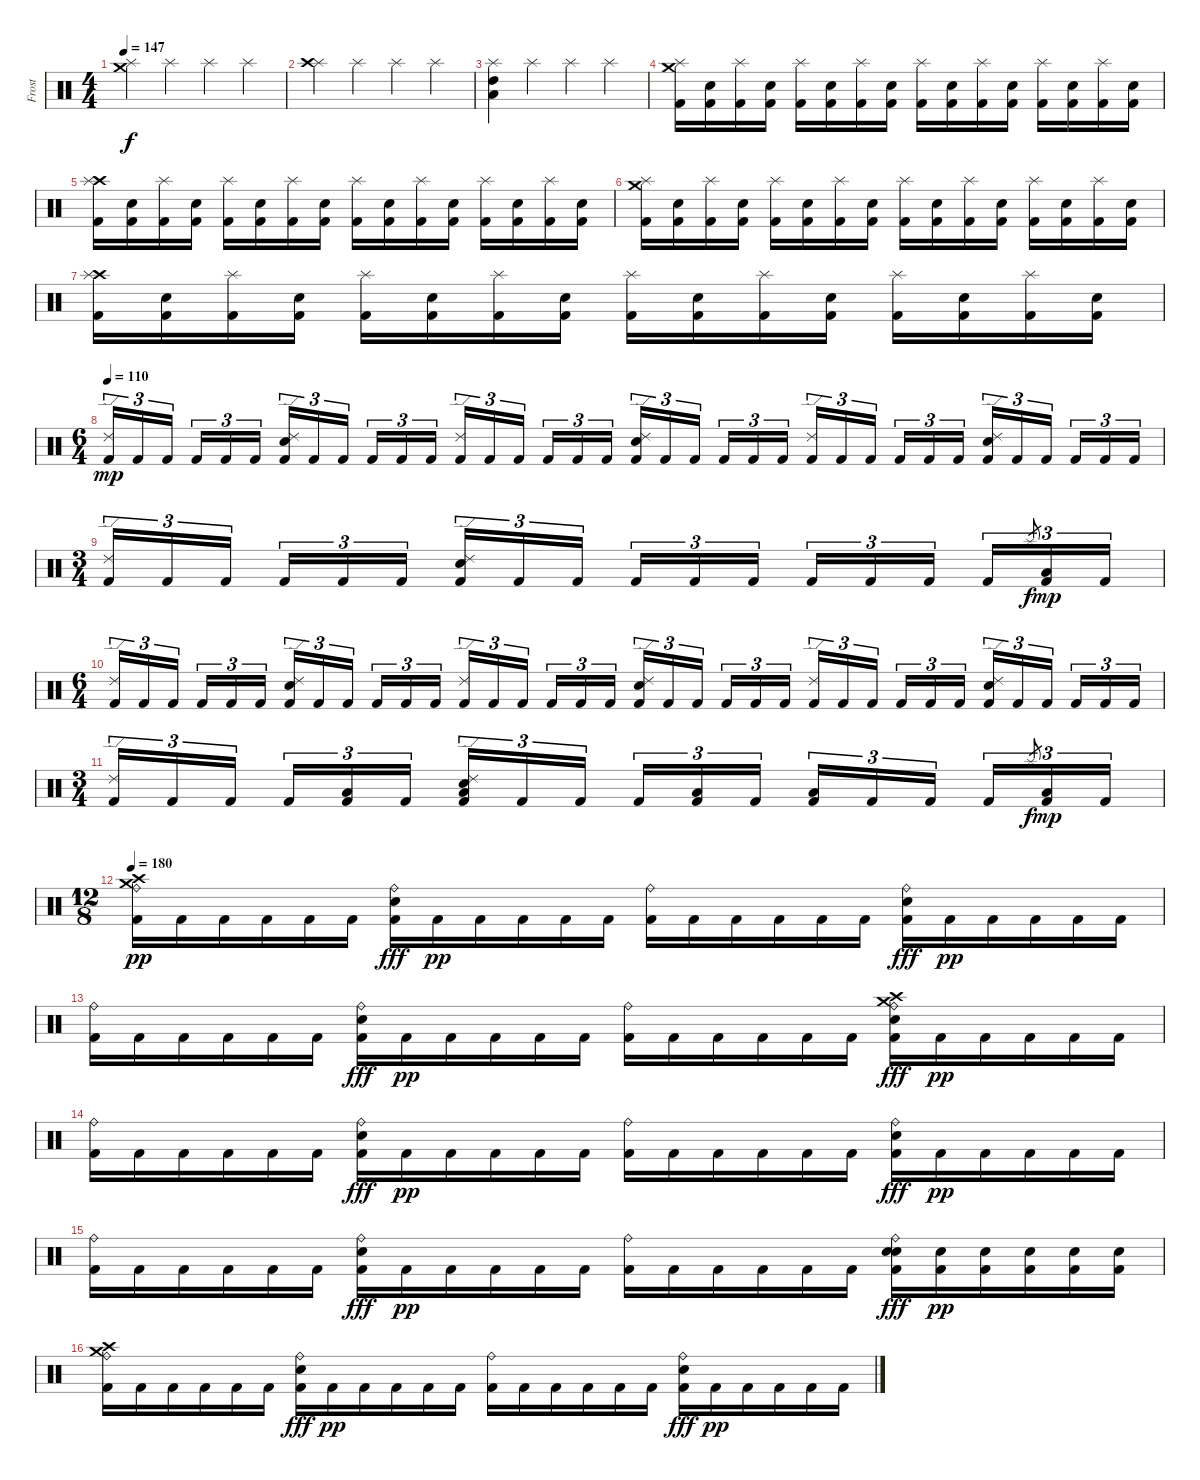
\track ("Frost" "Frost") {instrument percussion}
\staff {score}
\articulation defaults
\ts (4 4)
\tempo 147
\clef neutral
\ks c
("Splash (hit)" "Crash medium (hit)").4{dy f} "Splash (hit)".4 "Splash (hit)".4 "Splash (hit)".4 |
("Splash (hit)" "Crash high (hit)").4 "Splash (hit)".4 "Splash (hit)".4 "Splash (hit)".4 |
("Splash (hit)" "High Tom (hit)" "Low Floor Tom (hit)").4 "Splash (hit)".4 "Splash (hit)".4 "Splash (hit)".4 |
("Kick (hit) 2" "Crash medium (hit)" "Splash (hit)").16 ("Kick (hit) 2" "Electric Snare (hit)").16 ("Kick (hit) 2" "Splash (hit)").16 ("Kick (hit) 2" "Electric Snare (hit)").16 ("Kick (hit) 2" "Splash (hit)").16 ("Kick (hit) 2" "Electric Snare (hit)").16 ("Kick (hit) 2" "Splash (hit)").16 ("Kick (hit) 2" "Electric Snare (hit)").16 ("Kick (hit) 2" "Splash (hit)").16 ("Kick (hit) 2" "Electric Snare (hit)").16 ("Kick (hit) 2" "Splash (hit)").16 ("Kick (hit) 2" "Electric Snare (hit)").16 ("Kick (hit) 2" "Splash (hit)").16 ("Kick (hit) 2" "Electric Snare (hit)").16 ("Kick (hit) 2" "Splash (hit)").16 ("Kick (hit) 2" "Electric Snare (hit)").16 |
("Kick (hit) 2" "Crash high (hit)" "Splash (hit)").16 ("Kick (hit) 2" "Electric Snare (hit)").16 ("Kick (hit) 2" "Splash (hit)").16 ("Kick (hit) 2" "Electric Snare (hit)").16 ("Kick (hit) 2" "Splash (hit)").16 ("Kick (hit) 2" "Electric Snare (hit)").16 ("Kick (hit) 2" "Splash (hit)").16 ("Kick (hit) 2" "Electric Snare (hit)").16 ("Kick (hit) 2" "Splash (hit)").16 ("Kick (hit) 2" "Electric Snare (hit)").16 ("Kick (hit) 2" "Splash (hit)").16 ("Kick (hit) 2" "Electric Snare (hit)").16 ("Kick (hit) 2" "Splash (hit)").16 ("Kick (hit) 2" "Electric Snare (hit)").16 ("Kick (hit) 2" "Splash (hit)").16 ("Kick (hit) 2" "Electric Snare (hit)").16 |
("Kick (hit) 2" "Crash medium (hit)" "Splash (hit)").16 ("Kick (hit) 2" "Electric Snare (hit)").16 ("Kick (hit) 2" "Splash (hit)").16 ("Kick (hit) 2" "Electric Snare (hit)").16 ("Kick (hit) 2" "Splash (hit)").16 ("Kick (hit) 2" "Electric Snare (hit)").16 ("Kick (hit) 2" "Splash (hit)").16 ("Kick (hit) 2" "Electric Snare (hit)").16 ("Kick (hit) 2" "Splash (hit)").16 ("Kick (hit) 2" "Electric Snare (hit)").16 ("Kick (hit) 2" "Splash (hit)").16 ("Kick (hit) 2" "Electric Snare (hit)").16 ("Kick (hit) 2" "Splash (hit)").16 ("Kick (hit) 2" "Electric Snare (hit)").16 ("Kick (hit) 2" "Splash (hit)").16 ("Kick (hit) 2" "Electric Snare (hit)").16 |
("Kick (hit) 2" "Crash high (hit)" "Splash (hit)").16 ("Kick (hit) 2" "Electric Snare (hit)").16 ("Kick (hit) 2" "Splash (hit)").16 ("Kick (hit) 2" "Electric Snare (hit)").16 ("Kick (hit) 2" "Splash (hit)").16 ("Kick (hit) 2" "Electric Snare (hit)").16 ("Kick (hit) 2" "Splash (hit)").16 ("Kick (hit) 2" "Electric Snare (hit)").16 ("Kick (hit) 2" "Splash (hit)").16 ("Kick (hit) 2" "Electric Snare (hit)").16 ("Kick (hit) 2" "Splash (hit)").16 ("Kick (hit) 2" "Electric Snare (hit)").16 ("Kick (hit) 2" "Splash (hit)").16 ("Kick (hit) 2" "Electric Snare (hit)").16 ("Kick (hit) 2" "Splash (hit)").16 ("Kick (hit) 2" "Electric Snare (hit)").16 |
\ts (6 4)
\tempo 110
("Kick (hit) 2" "Ride (edge) 2").16{tu (3 2) dy mp} "Kick (hit) 2".16{tu (3 2)} "Kick (hit) 2".16{tu (3 2)} "Kick (hit) 2".16{tu (3 2)} "Kick (hit) 2".16{tu (3 2)} "Kick (hit) 2".16{tu (3 2)} ("Kick (hit) 2" "Ride (edge) 2" "Snare (hit) 2").16{tu (3 2)} "Kick (hit) 2".16{tu (3 2)} "Kick (hit) 2".16{tu (3 2)} "Kick (hit) 2".16{tu (3 2)} "Kick (hit) 2".16{tu (3 2)} "Kick (hit) 2".16{tu (3 2)} ("Kick (hit) 2" "Ride (edge) 2").16{tu (3 2)} "Kick (hit) 2".16{tu (3 2)} "Kick (hit) 2".16{tu (3 2)} "Kick (hit) 2".16{tu (3 2)} "Kick (hit) 2".16{tu (3 2)} "Kick (hit) 2".16{tu (3 2)} ("Kick (hit) 2" "Ride (edge) 2" "Snare (hit) 2").16{tu (3 2)} "Kick (hit) 2".16{tu (3 2)} "Kick (hit) 2".16{tu (3 2)} "Kick (hit) 2".16{tu (3 2)} "Kick (hit) 2".16{tu (3 2)} "Kick (hit) 2".16{tu (3 2)} ("Kick (hit) 2" "Ride (edge) 2").16{tu (3 2)} "Kick (hit) 2".16{tu (3 2)} "Kick (hit) 2".16{tu (3 2)} "Kick (hit) 2".16{tu (3 2)} "Kick (hit) 2".16{tu (3 2)} "Kick (hit) 2".16{tu (3 2)} ("Kick (hit) 2" "Ride (edge) 2" "Snare (hit) 2").16{tu (3 2)} "Kick (hit) 2".16{tu (3 2)} "Kick (hit) 2".16{tu (3 2)} "Kick (hit) 2".16{tu (3 2)} "Kick (hit) 2".16{tu (3 2)} "Kick (hit) 2".16{tu (3 2)} |
\ts (3 4)
("Kick (hit) 2" "Ride (edge) 2").16{tu (3 2)} "Kick (hit) 2".16{tu (3 2)} "Kick (hit) 2".16{tu (3 2)} "Kick (hit) 2".16{tu (3 2)} "Kick (hit) 2".16{tu (3 2)} "Kick (hit) 2".16{tu (3 2)} ("Kick (hit) 2" "Ride (edge) 2" "Snare (hit) 2").16{tu (3 2)} "Kick (hit) 2".16{tu (3 2)} "Kick (hit) 2".16{tu (3 2)} "Kick (hit) 2".16{tu (3 2)} "Kick (hit) 2".16{tu (3 2)} "Kick (hit) 2".16{tu (3 2)} "Kick (hit) 2".16{tu (3 2)} "Kick (hit) 2".16{tu (3 2)} "Kick (hit) 2".16{tu (3 2)} "Kick (hit) 2".16{tu (3 2)} "Splash (hit)".8{gr dy f} ("Kick (hit) 2" "Low Tom (hit)").16{tu (3 2) dy mp} "Kick (hit) 2".16{tu (3 2)} |
\ts (6 4)
("Kick (hit) 2" "Ride (edge) 2").16{tu (3 2)} "Kick (hit) 2".16{tu (3 2)} "Kick (hit) 2".16{tu (3 2)} "Kick (hit) 2".16{tu (3 2)} "Kick (hit) 2".16{tu (3 2)} "Kick (hit) 2".16{tu (3 2)} ("Kick (hit) 2" "Ride (edge) 2" "Snare (hit) 2").16{tu (3 2)} "Kick (hit) 2".16{tu (3 2)} "Kick (hit) 2".16{tu (3 2)} "Kick (hit) 2".16{tu (3 2)} "Kick (hit) 2".16{tu (3 2)} "Kick (hit) 2".16{tu (3 2)} ("Kick (hit) 2" "Ride (edge) 2").16{tu (3 2)} "Kick (hit) 2".16{tu (3 2)} "Kick (hit) 2".16{tu (3 2)} "Kick (hit) 2".16{tu (3 2)} "Kick (hit) 2".16{tu (3 2)} "Kick (hit) 2".16{tu (3 2)} ("Kick (hit) 2" "Ride (edge) 2" "Snare (hit) 2").16{tu (3 2)} "Kick (hit) 2".16{tu (3 2)} "Kick (hit) 2".16{tu (3 2)} "Kick (hit) 2".16{tu (3 2)} "Kick (hit) 2".16{tu (3 2)} "Kick (hit) 2".16{tu (3 2)} ("Kick (hit) 2" "Ride (edge) 2").16{tu (3 2)} "Kick (hit) 2".16{tu (3 2)} "Kick (hit) 2".16{tu (3 2)} "Kick (hit) 2".16{tu (3 2)} "Kick (hit) 2".16{tu (3 2)} "Kick (hit) 2".16{tu (3 2)} ("Kick (hit) 2" "Ride (edge) 2" "Snare (hit) 2").16{tu (3 2)} "Kick (hit) 2".16{tu (3 2)} "Kick (hit) 2".16{tu (3 2)} "Kick (hit) 2".16{tu (3 2)} "Kick (hit) 2".16{tu (3 2)} "Kick (hit) 2".16{tu (3 2)} |
\ts (3 4)
("Kick (hit) 2" "Ride (edge) 2").16{tu (3 2)} "Kick (hit) 2".16{tu (3 2)} "Kick (hit) 2".16{tu (3 2)} "Kick (hit) 2".16{tu (3 2)} ("Kick (hit) 2" "Low Tom (hit)").16{tu (3 2)} "Kick (hit) 2".16{tu (3 2)} ("Kick (hit) 2" "Low Tom (hit)" "Ride (edge) 2" "Snare (hit) 2").16{tu (3 2)} "Kick (hit) 2".16{tu (3 2)} "Kick (hit) 2".16{tu (3 2)} "Kick (hit) 2".16{tu (3 2)} ("Kick (hit) 2" "Low Tom (hit)").16{tu (3 2)} "Kick (hit) 2".16{tu (3 2)} ("Kick (hit) 2" "Low Tom (hit)").16{tu (3 2)} "Kick (hit) 2".16{tu (3 2)} "Kick (hit) 2".16{tu (3 2)} "Kick (hit) 2".16{tu (3 2)} "Splash (hit)".8{gr dy f} ("Kick (hit) 2" "Low Tom (hit)").16{tu (3 2) dy mp} "Kick (hit) 2".16{tu (3 2)} |
\ts (12 8)
\tempo 180
("Kick (hit) 2" "Crash high (hit)" "Crash medium (hit)" "Ride (bell)").16{dy pp} "Kick (hit) 2".16 "Kick (hit) 2".16 "Kick (hit) 2".16 "Kick (hit) 2".16 "Kick (hit) 2".16 ("Kick (hit) 2" "Ride (bell)" "Electric Snare (hit)").16{dy fff} "Kick (hit) 2".16{dy pp} "Kick (hit) 2".16 "Kick (hit) 2".16 "Kick (hit) 2".16 "Kick (hit) 2".16 ("Kick (hit) 2" "Ride (bell)").16 "Kick (hit) 2".16 "Kick (hit) 2".16 "Kick (hit) 2".16 "Kick (hit) 2".16 "Kick (hit) 2".16 ("Kick (hit) 2" "Ride (bell)" "Electric Snare (hit)").16{dy fff} "Kick (hit) 2".16{dy pp} "Kick (hit) 2".16 "Kick (hit) 2".16 "Kick (hit) 2".16 "Kick (hit) 2".16 |
("Kick (hit) 2" "Ride (bell)").16 "Kick (hit) 2".16 "Kick (hit) 2".16 "Kick (hit) 2".16 "Kick (hit) 2".16 "Kick (hit) 2".16 ("Kick (hit) 2" "Ride (bell)" "Electric Snare (hit)").16{dy fff} "Kick (hit) 2".16{dy pp} "Kick (hit) 2".16 "Kick (hit) 2".16 "Kick (hit) 2".16 "Kick (hit) 2".16 ("Kick (hit) 2" "Ride (bell)").16 "Kick (hit) 2".16 "Kick (hit) 2".16 "Kick (hit) 2".16 "Kick (hit) 2".16 "Kick (hit) 2".16 ("Kick (hit) 2" "Crash high (hit)" "Crash medium (hit)" "Ride (bell)" "Electric Snare (hit)").16{dy fff} "Kick (hit) 2".16{dy pp} "Kick (hit) 2".16 "Kick (hit) 2".16 "Kick (hit) 2".16 "Kick (hit) 2".16 |
("Kick (hit) 2" "Ride (bell)").16 "Kick (hit) 2".16 "Kick (hit) 2".16 "Kick (hit) 2".16 "Kick (hit) 2".16 "Kick (hit) 2".16 ("Kick (hit) 2" "Ride (bell)" "Electric Snare (hit)").16{dy fff} "Kick (hit) 2".16{dy pp} "Kick (hit) 2".16 "Kick (hit) 2".16 "Kick (hit) 2".16 "Kick (hit) 2".16 ("Kick (hit) 2" "Ride (bell)").16 "Kick (hit) 2".16 "Kick (hit) 2".16 "Kick (hit) 2".16 "Kick (hit) 2".16 "Kick (hit) 2".16 ("Kick (hit) 2" "Ride (bell)" "Electric Snare (hit)").16{dy fff} "Kick (hit) 2".16{dy pp} "Kick (hit) 2".16 "Kick (hit) 2".16 "Kick (hit) 2".16 "Kick (hit) 2".16 |
("Kick (hit) 2" "Ride (bell)").16 "Kick (hit) 2".16 "Kick (hit) 2".16 "Kick (hit) 2".16 "Kick (hit) 2".16 "Kick (hit) 2".16 ("Kick (hit) 2" "Ride (bell)" "Electric Snare (hit)").16{dy fff} "Kick (hit) 2".16{dy pp} "Kick (hit) 2".16 "Kick (hit) 2".16 "Kick (hit) 2".16 "Kick (hit) 2".16 ("Kick (hit) 2" "Ride (bell)").16 "Kick (hit) 2".16 "Kick (hit) 2".16 "Kick (hit) 2".16 "Kick (hit) 2".16 "Kick (hit) 2".16 ("Kick (hit) 2" "Electric Snare (hit)" "Ride (bell)" "Electric Snare (hit)").16{dy fff} ("Kick (hit) 2" "Electric Snare (hit)").16{dy pp} ("Kick (hit) 2" "Electric Snare (hit)").16 ("Kick (hit) 2" "Electric Snare (hit)").16 ("Kick (hit) 2" "Electric Snare (hit)").16 ("Kick (hit) 2" "Electric Snare (hit)").16 |
("Kick (hit) 2" "Crash high (hit)" "Crash medium (hit)" "Ride (bell)").16 "Kick (hit) 2".16 "Kick (hit) 2".16 "Kick (hit) 2".16 "Kick (hit) 2".16 "Kick (hit) 2".16 ("Kick (hit) 2" "Ride (bell)" "Electric Snare (hit)").16{dy fff} "Kick (hit) 2".16{dy pp} "Kick (hit) 2".16 "Kick (hit) 2".16 "Kick (hit) 2".16 "Kick (hit) 2".16 ("Kick (hit) 2" "Ride (bell)").16 "Kick (hit) 2".16 "Kick (hit) 2".16 "Kick (hit) 2".16 "Kick (hit) 2".16 "Kick (hit) 2".16 ("Kick (hit) 2" "Ride (bell)" "Electric Snare (hit)").16{dy fff} "Kick (hit) 2".16{dy pp} "Kick (hit) 2".16 "Kick (hit) 2".16 "Kick (hit) 2".16 "Kick (hit) 2".16
